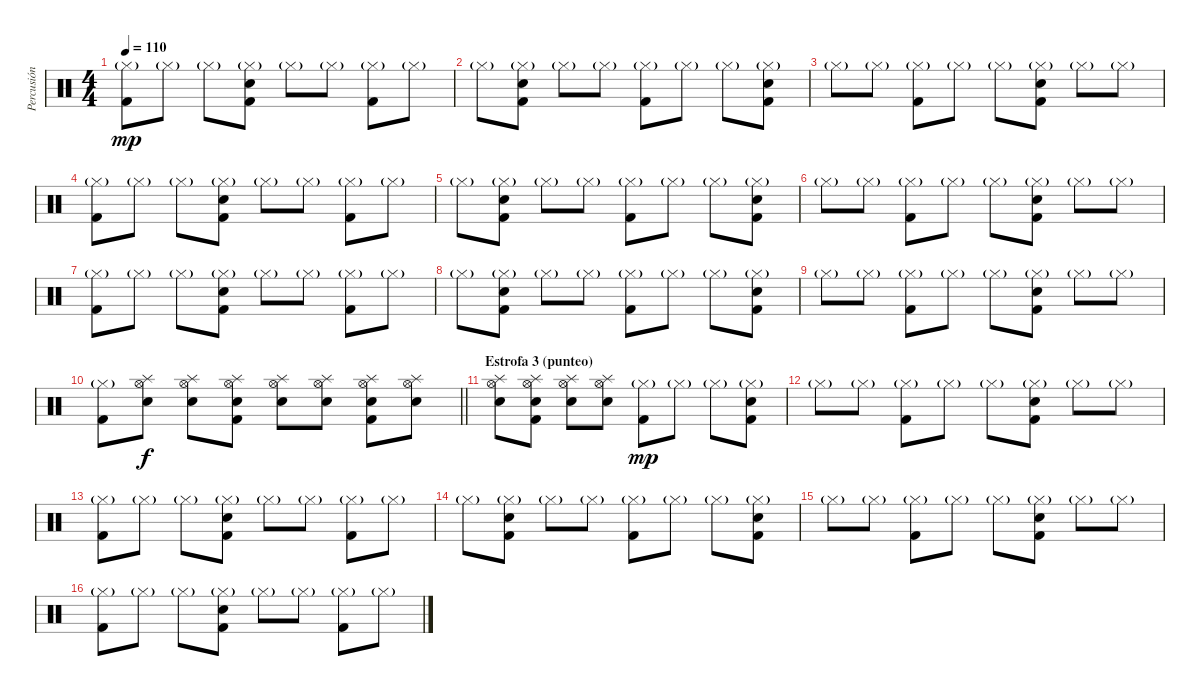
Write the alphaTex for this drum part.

\track ("Percusión" "Percusión") {instrument percussion}
\staff {score}
\articulation defaults
\ts (4 4)
\tempo 110
\clef neutral
\ks c
("Hi-Hat (closed)"{g} "Kick (hit) 2").8{dy mp} "Hi-Hat (closed)"{g}.8 "Hi-Hat (closed)"{g}.8 ("Hi-Hat (closed)"{g} "Kick (hit) 2" "Snare (hit) 2").8 "Hi-Hat (closed)"{g}.8 "Hi-Hat (closed)"{g}.8 ("Hi-Hat (closed)"{g} "Kick (hit) 2").8 "Hi-Hat (closed)"{g}.8 |
"Hi-Hat (closed)"{g}.8 ("Hi-Hat (closed)"{g} "Kick (hit) 2" "Snare (hit) 2").8 "Hi-Hat (closed)"{g}.8 "Hi-Hat (closed)"{g}.8 ("Hi-Hat (closed)"{g} "Kick (hit) 2").8 "Hi-Hat (closed)"{g}.8 "Hi-Hat (closed)"{g}.8 ("Hi-Hat (closed)"{g} "Kick (hit) 2" "Snare (hit) 2").8 |
"Hi-Hat (closed)"{g}.8 "Hi-Hat (closed)"{g}.8 ("Hi-Hat (closed)"{g} "Kick (hit) 2").8 "Hi-Hat (closed)"{g}.8 "Hi-Hat (closed)"{g}.8 ("Hi-Hat (closed)"{g} "Kick (hit) 2" "Snare (hit) 2").8 "Hi-Hat (closed)"{g}.8 "Hi-Hat (closed)"{g}.8 |
("Hi-Hat (closed)"{g} "Kick (hit) 2").8 "Hi-Hat (closed)"{g}.8 "Hi-Hat (closed)"{g}.8 ("Hi-Hat (closed)"{g} "Kick (hit) 2" "Snare (hit) 2").8 "Hi-Hat (closed)"{g}.8 "Hi-Hat (closed)"{g}.8 ("Hi-Hat (closed)"{g} "Kick (hit) 2").8 "Hi-Hat (closed)"{g}.8 |
"Hi-Hat (closed)"{g}.8 ("Hi-Hat (closed)"{g} "Kick (hit) 2" "Snare (hit) 2").8 "Hi-Hat (closed)"{g}.8 "Hi-Hat (closed)"{g}.8 ("Hi-Hat (closed)"{g} "Kick (hit) 2").8 "Hi-Hat (closed)"{g}.8 "Hi-Hat (closed)"{g}.8 ("Hi-Hat (closed)"{g} "Kick (hit) 2" "Snare (hit) 2").8 |
"Hi-Hat (closed)"{g}.8 "Hi-Hat (closed)"{g}.8 ("Hi-Hat (closed)"{g} "Kick (hit) 2").8 "Hi-Hat (closed)"{g}.8 "Hi-Hat (closed)"{g}.8 ("Hi-Hat (closed)"{g} "Kick (hit) 2" "Snare (hit) 2").8 "Hi-Hat (closed)"{g}.8 "Hi-Hat (closed)"{g}.8 |
("Hi-Hat (closed)"{g} "Kick (hit) 2").8 "Hi-Hat (closed)"{g}.8 "Hi-Hat (closed)"{g}.8 ("Hi-Hat (closed)"{g} "Kick (hit) 2" "Snare (hit) 2").8 "Hi-Hat (closed)"{g}.8 "Hi-Hat (closed)"{g}.8 ("Hi-Hat (closed)"{g} "Kick (hit) 2").8 "Hi-Hat (closed)"{g}.8 |
"Hi-Hat (closed)"{g}.8 ("Hi-Hat (closed)"{g} "Kick (hit) 2" "Snare (hit) 2").8 "Hi-Hat (closed)"{g}.8 "Hi-Hat (closed)"{g}.8 ("Hi-Hat (closed)"{g} "Kick (hit) 2").8 "Hi-Hat (closed)"{g}.8 "Hi-Hat (closed)"{g}.8 ("Hi-Hat (closed)"{g} "Kick (hit) 2" "Snare (hit) 2").8 |
"Hi-Hat (closed)"{g}.8 "Hi-Hat (closed)"{g}.8 ("Hi-Hat (closed)"{g} "Kick (hit) 2").8 "Hi-Hat (closed)"{g}.8 "Hi-Hat (closed)"{g}.8 ("Hi-Hat (closed)"{g} "Kick (hit) 2" "Snare (hit) 2").8 "Hi-Hat (closed)"{g}.8 "Hi-Hat (closed)"{g}.8 |
\barLineRight lightlight
("Hi-Hat (closed)"{g} "Kick (hit) 2").8 ("Hi-Hat (open)" "Splash (hit)" "Snare (hit) 2").8{dy f} ("Hi-Hat (open)" "Splash (hit)" "Snare (hit) 2").8 ("Hi-Hat (open)" "Kick (hit) 2" "Splash (hit)" "Snare (hit) 2").8 ("Hi-Hat (open)" "Splash (hit)" "Snare (hit) 2").8 ("Hi-Hat (open)" "Splash (hit)" "Snare (hit) 2").8 ("Hi-Hat (open)" "Kick (hit) 2" "Splash (hit)" "Snare (hit) 2").8 ("Hi-Hat (open)" "Splash (hit)" "Snare (hit) 2").8 |
\section ("" "Estrofa 3 (punteo)")
("Hi-Hat (open)" "Splash (hit)" "Snare (hit) 2").8 ("Hi-Hat (open)" "Kick (hit) 2" "Splash (hit)" "Snare (hit) 2").8 ("Hi-Hat (open)" "Splash (hit)" "Snare (hit) 2").8 ("Hi-Hat (open)" "Splash (hit)" "Snare (hit) 2").8 ("Hi-Hat (closed)"{g} "Kick (hit) 2").8{dy mp} "Hi-Hat (closed)"{g}.8 "Hi-Hat (closed)"{g}.8 ("Hi-Hat (closed)"{g} "Kick (hit) 2" "Snare (hit) 2").8 |
"Hi-Hat (closed)"{g}.8 "Hi-Hat (closed)"{g}.8 ("Hi-Hat (closed)"{g} "Kick (hit) 2").8 "Hi-Hat (closed)"{g}.8 "Hi-Hat (closed)"{g}.8 ("Hi-Hat (closed)"{g} "Kick (hit) 2" "Snare (hit) 2").8 "Hi-Hat (closed)"{g}.8 "Hi-Hat (closed)"{g}.8 |
("Hi-Hat (closed)"{g} "Kick (hit) 2").8 "Hi-Hat (closed)"{g}.8 "Hi-Hat (closed)"{g}.8 ("Hi-Hat (closed)"{g} "Kick (hit) 2" "Snare (hit) 2").8 "Hi-Hat (closed)"{g}.8 "Hi-Hat (closed)"{g}.8 ("Hi-Hat (closed)"{g} "Kick (hit) 2").8 "Hi-Hat (closed)"{g}.8 |
"Hi-Hat (closed)"{g}.8 ("Hi-Hat (closed)"{g} "Kick (hit) 2" "Snare (hit) 2").8 "Hi-Hat (closed)"{g}.8 "Hi-Hat (closed)"{g}.8 ("Hi-Hat (closed)"{g} "Kick (hit) 2").8 "Hi-Hat (closed)"{g}.8 "Hi-Hat (closed)"{g}.8 ("Hi-Hat (closed)"{g} "Kick (hit) 2" "Snare (hit) 2").8 |
"Hi-Hat (closed)"{g}.8 "Hi-Hat (closed)"{g}.8 ("Hi-Hat (closed)"{g} "Kick (hit) 2").8 "Hi-Hat (closed)"{g}.8 "Hi-Hat (closed)"{g}.8 ("Hi-Hat (closed)"{g} "Kick (hit) 2" "Snare (hit) 2").8 "Hi-Hat (closed)"{g}.8 "Hi-Hat (closed)"{g}.8 |
("Hi-Hat (closed)"{g} "Kick (hit) 2").8 "Hi-Hat (closed)"{g}.8 "Hi-Hat (closed)"{g}.8 ("Hi-Hat (closed)"{g} "Kick (hit) 2" "Snare (hit) 2").8 "Hi-Hat (closed)"{g}.8 "Hi-Hat (closed)"{g}.8 ("Hi-Hat (closed)"{g} "Kick (hit) 2").8 "Hi-Hat (closed)"{g}.8
